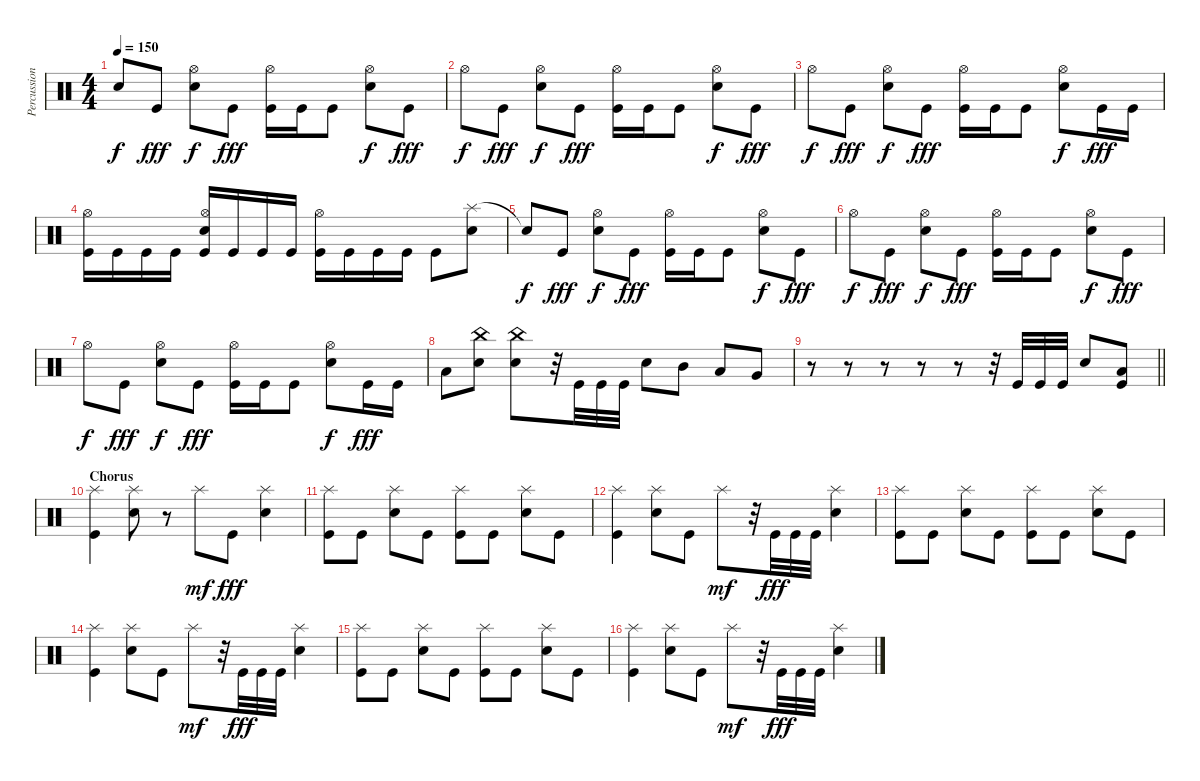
\track ("Percussion" "Percussion") {instrument percussion}
\staff {score}
\articulation defaults
\ts (4 4)
\tempo 150
\clef neutral
\ks c "Snare (hit)"{t}.8{dy f} "Kick (hit)".8{dy fff}
("Hi-Hat (open)" "Electric Snare (hit)").8{dy f} "Kick (hit)".8{dy fff} ("Hi-Hat (open)" "Kick (hit)").16 "Kick (hit)".16 "Kick (hit)".8 ("Hi-Hat (open)" "Electric Snare (hit)").8{dy f} "Kick (hit)".8{dy fff} |
"Hi-Hat (open)".8{dy f} "Kick (hit)".8{dy fff} ("Hi-Hat (open)" "Electric Snare (hit)").8{dy f} "Kick (hit)".8{dy fff} ("Hi-Hat (open)" "Kick (hit)").16 "Kick (hit)".16 "Kick (hit)".8 ("Hi-Hat (open)" "Electric Snare (hit)").8{dy f} "Kick (hit)".8{dy fff} |
"Hi-Hat (open)".8{dy f} "Kick (hit)".8{dy fff} ("Hi-Hat (open)" "Electric Snare (hit)").8{dy f} "Kick (hit)".8{dy fff} ("Hi-Hat (open)" "Kick (hit)").16 "Kick (hit)".16 "Kick (hit)".8 ("Hi-Hat (open)" "Electric Snare (hit)").8{dy f} "Kick (hit)".16{dy fff} "Kick (hit)".16 |
("Hi-Hat (open)" "Kick (hit)").16 "Kick (hit)".16 "Kick (hit)".16 "Kick (hit)".16 ("Hi-Hat (open)" "Electric Snare (hit)" "Kick (hit)").16 "Kick (hit)".16 "Kick (hit)".16 "Kick (hit)".16 ("Hi-Hat (open)" "Kick (hit)").16 "Kick (hit)".16 "Kick (hit)".16 "Kick (hit)".16 "Kick (hit)".8 ("Splash (hit)" "Electric Snare (hit)").8 |
"Snare (hit)"{t}.8{dy f} "Kick (hit)".8{dy fff} ("Hi-Hat (open)" "Electric Snare (hit)").8{dy f} "Kick (hit)".8{dy fff} ("Hi-Hat (open)" "Kick (hit)").16 "Kick (hit)".16 "Kick (hit)".8 ("Hi-Hat (open)" "Electric Snare (hit)").8{dy f} "Kick (hit)".8{dy fff} |
"Hi-Hat (open)".8{dy f} "Kick (hit)".8{dy fff} ("Hi-Hat (open)" "Electric Snare (hit)").8{dy f} "Kick (hit)".8{dy fff} ("Hi-Hat (open)" "Kick (hit)").16 "Kick (hit)".16 "Kick (hit)".8 ("Hi-Hat (open)" "Electric Snare (hit)").8{dy f} "Kick (hit)".8{dy fff} |
"Hi-Hat (open)".8{dy f} "Kick (hit)".8{dy fff} ("Hi-Hat (open)" "Electric Snare (hit)").8{dy f} "Kick (hit)".8{dy fff} ("Hi-Hat (open)" "Kick (hit)").16 "Kick (hit)".16 "Kick (hit)".8 ("Hi-Hat (open)" "Electric Snare (hit)").8{dy f} "Kick (hit)".16{dy fff} "Kick (hit)".16 |
"Low Floor Tom (hit)".8 ("China (hit)" "Electric Snare (hit)").8 ("China (hit)" "Electric Snare (hit)").8 r.32 "Kick (hit)".32 "Kick (hit)".32 "Kick (hit)".32 "Electric Snare (hit)".8 "Mid Tom (hit)".8 "Low Tom (hit)".8 "Very Low Tom (hit)".8 |
\barLineRight lightlight
r.8 r.8 r.8 r.8 r.8 r.32 "Kick (hit)".32 "Kick (hit)".32 "Kick (hit)".32 "Electric Snare (hit)".8 ("Low Floor Tom (hit)" "Kick (hit)").8 |
\section ("" "Chorus")
("Splash (hit)" "Kick (hit)").4 ("Splash (hit)" "Electric Snare (hit)").8 r.8 "Splash (hit)".8{dy mf} "Kick (hit)".8{dy fff} ("Splash (hit)" "Electric Snare (hit)").4 |
("Splash (hit)" "Kick (hit)").8 "Kick (hit)".8 ("Splash (hit)" "Electric Snare (hit)").8 "Kick (hit)".8 ("Splash (hit)" "Kick (hit)").8 "Kick (hit)".8 ("Splash (hit)" "Electric Snare (hit)").8 "Kick (hit)".8 |
("Splash (hit)" "Kick (hit)").4 ("Splash (hit)" "Electric Snare (hit)").8 "Kick (hit)".8 "Splash (hit)".8{dy mf} r.32 "Kick (hit)".32{dy fff} "Kick (hit)".32 "Kick (hit)".32 ("Splash (hit)" "Electric Snare (hit)").4 |
("Splash (hit)" "Kick (hit)").8 "Kick (hit)".8 ("Splash (hit)" "Electric Snare (hit)").8 "Kick (hit)".8 ("Splash (hit)" "Kick (hit)").8 "Kick (hit)".8 ("Splash (hit)" "Electric Snare (hit)").8 "Kick (hit)".8 |
("Splash (hit)" "Kick (hit)").4 ("Splash (hit)" "Electric Snare (hit)").8 "Kick (hit)".8 "Splash (hit)".8{dy mf} r.32 "Kick (hit)".32{dy fff} "Kick (hit)".32 "Kick (hit)".32 ("Splash (hit)" "Electric Snare (hit)").4 |
("Splash (hit)" "Kick (hit)").8 "Kick (hit)".8 ("Splash (hit)" "Electric Snare (hit)").8 "Kick (hit)".8 ("Splash (hit)" "Kick (hit)").8 "Kick (hit)".8 ("Splash (hit)" "Electric Snare (hit)").8 "Kick (hit)".8 |
("Splash (hit)" "Kick (hit)").4 ("Splash (hit)" "Electric Snare (hit)").8 "Kick (hit)".8 "Splash (hit)".8{dy mf} r.32 "Kick (hit)".32{dy fff} "Kick (hit)".32 "Kick (hit)".32 ("Splash (hit)" "Electric Snare (hit)").4
